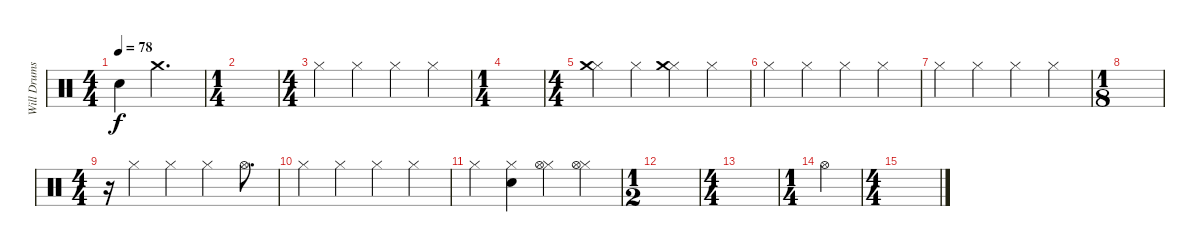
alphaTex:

\track ("Will Drums" "Will Drums") {instrument percussion}
\staff {score}
\articulation defaults
\ts (4 4)
\tempo 78
\clef neutral
\ks c "Snare (hit) 2".4{dy f} "Crash medium (hit)".2{d}
|
\ts (1 4)
|
\ts (4 4)
"Hi-Hat (closed)".4 "Hi-Hat (closed)".4 "Hi-Hat (closed)".4 "Hi-Hat (closed)".4 |
\ts (1 4)
|
\ts (4 4)
("Hi-Hat (closed)" "Crash medium (hit)").4 "Hi-Hat (closed)".4 ("Hi-Hat (closed)" "Crash medium (hit)").4 "Hi-Hat (closed)".4 |
"Hi-Hat (closed)".4 "Hi-Hat (closed)".4 "Hi-Hat (closed)".4 "Hi-Hat (closed)".4 |
"Hi-Hat (closed)".4 "Hi-Hat (closed)".4 "Hi-Hat (closed)".4 "Hi-Hat (closed)".4 |
\ts (1 8)
|
\ts (4 4)
r.16 "Hi-Hat (closed)".4 "Hi-Hat (closed)".4 "Hi-Hat (closed)".4 "Hi-Hat (open)".8{d} |
"Hi-Hat (closed)".4 "Hi-Hat (closed)".4 "Hi-Hat (closed)".4 "Hi-Hat (closed)".4 |
"Hi-Hat (closed)".4 ("Hi-Hat (closed)" "Snare (hit) 2").4 ("Hi-Hat (closed)" "Hi-Hat (open)").4 ("Hi-Hat (closed)" "Hi-Hat (open)").4 |
\ts (1 2)
|
\ts (4 4)
|
\ts (1 4)
"Hi-Hat (open)".4 |
\ts (4 4)
